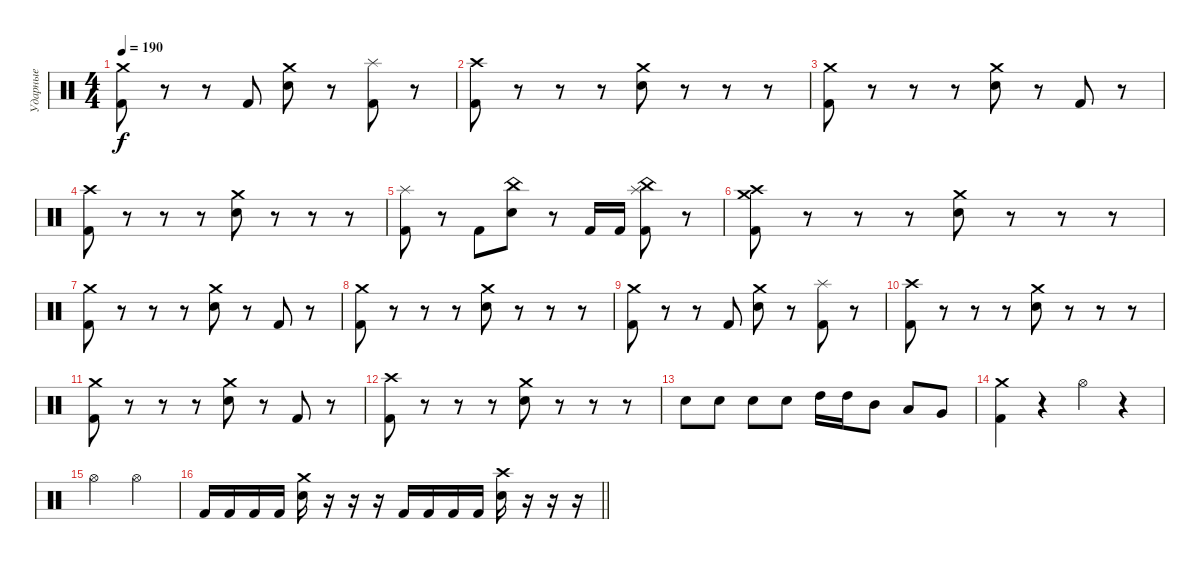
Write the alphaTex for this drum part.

\track ("Ударные" "Ударные") {instrument percussion}
\staff {score}
\articulation defaults
\ts (4 4)
\tempo 190
\clef neutral
\ks c
("Kick (hit) 2" "Crash medium (hit)").8{dy f} r.8 r.8 "Kick (hit) 2".8 ("Electric Snare (hit)" "Crash medium (hit)").8 r.8 ("Kick (hit) 2" "Splash (hit)").8 r.8 |
("Kick (hit) 2" "Crash high (hit)").8 r.8 r.8 r.8 ("Electric Snare (hit)" "Crash medium (hit)").8 r.8 r.8 r.8 |
("Kick (hit) 2" "Crash medium (hit)").8 r.8 r.8 r.8 ("Electric Snare (hit)" "Crash medium (hit)").8 r.8 "Kick (hit) 2".8 r.8 |
("Kick (hit) 2" "Crash high (hit)").8 r.8 r.8 r.8 ("Electric Snare (hit)" "Crash medium (hit)").8 r.8 r.8 r.8 |
("Kick (hit) 2" "Splash (hit)").8 r.8 "Kick (hit) 2".8 ("Electric Snare (hit)" "China (hit)").8 r.8 "Kick (hit) 2".16 "Kick (hit) 2".16 ("Kick (hit) 2" "China (hit)" "Splash (hit)").8 r.8 |
("Kick (hit) 2" "Crash high (hit)" "Crash medium (hit)").8 r.8 r.8 r.8 ("Electric Snare (hit)" "Crash medium (hit)").8 r.8 r.8 r.8 |
("Kick (hit) 2" "Crash medium (hit)").8 r.8 r.8 r.8 ("Electric Snare (hit)" "Crash medium (hit)").8 r.8 "Kick (hit) 2".8 r.8 |
("Kick (hit) 2" "Crash medium (hit)").8 r.8 r.8 r.8 ("Electric Snare (hit)" "Crash medium (hit)").8 r.8 r.8 r.8 |
("Kick (hit) 2" "Crash medium (hit)").8 r.8 r.8 "Kick (hit) 2".8 ("Electric Snare (hit)" "Crash medium (hit)").8 r.8 ("Kick (hit) 2" "Splash (hit)").8 r.8 |
("Kick (hit) 2" "Crash high (hit)").8 r.8 r.8 r.8 ("Electric Snare (hit)" "Crash medium (hit)").8 r.8 r.8 r.8 |
("Kick (hit) 2" "Crash medium (hit)").8 r.8 r.8 r.8 ("Electric Snare (hit)" "Crash medium (hit)").8 r.8 "Kick (hit) 2".8 r.8 |
("Kick (hit) 2" "Crash high (hit)").8 r.8 r.8 r.8 ("Electric Snare (hit)" "Crash medium (hit)").8 r.8 r.8 r.8 |
"Electric Snare (hit)".8 "Electric Snare (hit)".8 "Electric Snare (hit)".8 "Electric Snare (hit)".8 "High Tom (hit)".16 "High Tom (hit)".16 "Mid Tom (hit)".8 "Low Tom (hit)".8 "Very Low Tom (hit)".8 |
("Kick (hit) 2" "Crash medium (hit)").4 r.4 "Hi-Hat (open)".4 r.4 |
"Hi-Hat (open)".2 "Hi-Hat (open)".2 |
\barLineRight lightlight "Kick (hit) 2".16 "Kick (hit) 2".16 "Kick (hit) 2".16 "Kick (hit) 2".16
("Electric Snare (hit)" "Crash medium (hit)").16 r.16 r.16 r.16 "Kick (hit) 2".16 "Kick (hit) 2".16 "Kick (hit) 2".16 "Kick (hit) 2".16 ("Electric Snare (hit)" "Crash high (hit)").16 r.16 r.16 r.16
